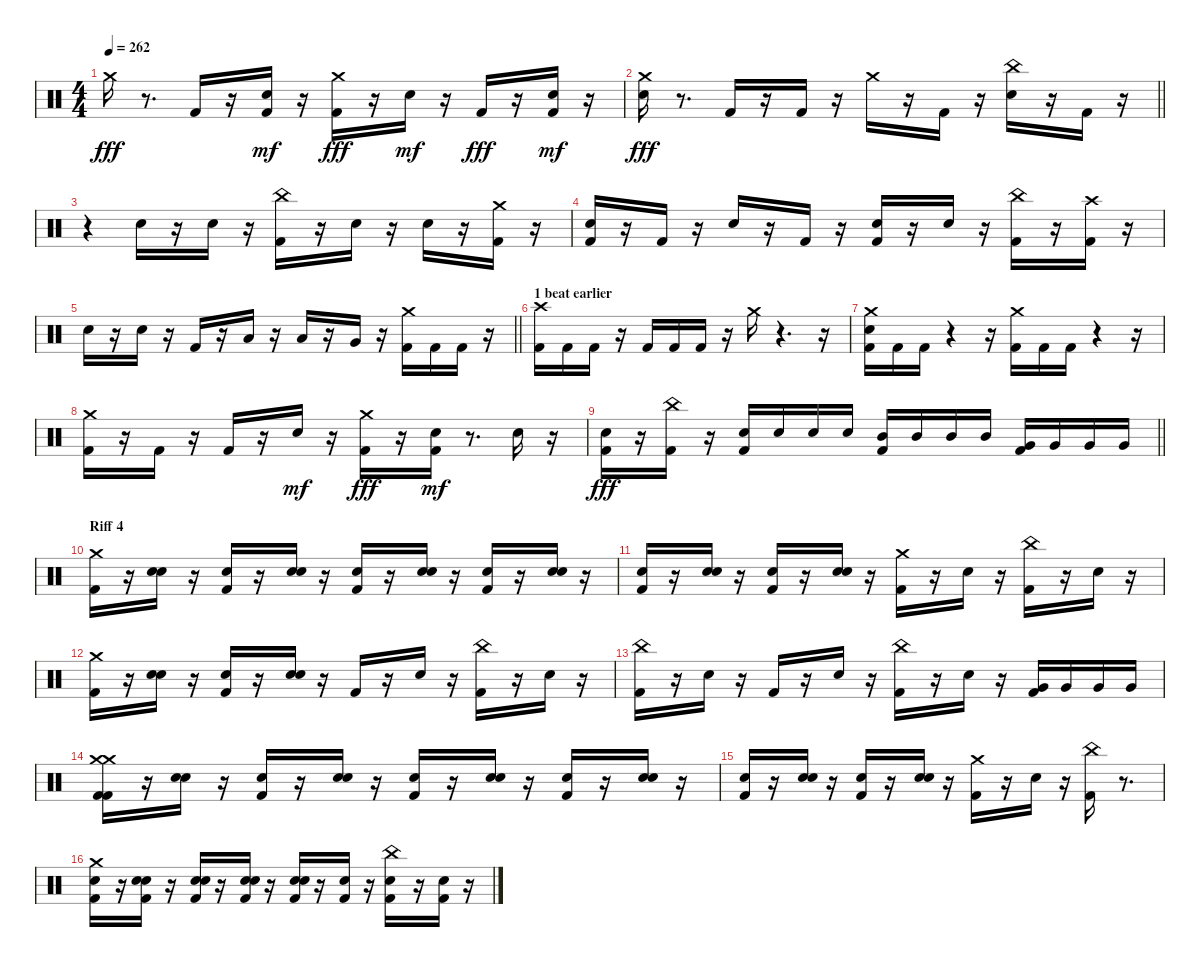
\track "" {instrument percussion}
\staff {score}
\articulation defaults
\ts (4 4)
\tempo 262
\clef neutral
\ks c "Crash medium (hit)".16{dy fff}
r.8{d} "Kick (hit) 2".16 r.16 ("Kick (hit) 2" "Snare (hit) 2").16{dy mf} r.16 ("Kick (hit) 2" "Crash medium (hit)").16{dy fff} r.16 "Snare (hit) 2".16{dy mf} r.16 "Kick (hit) 2".16{dy fff} r.16 ("Kick (hit) 2" "Snare (hit) 2").16{dy mf} r.16 |
\barLineRight lightlight
("Snare (hit) 2" "Crash medium (hit)").16{dy fff} r.8{d} "Kick (hit) 2".16 r.16 "Kick (hit) 2".16 r.16 "Crash medium (hit)".16 r.16 "Kick (hit) 2".16 r.16 ("Snare (hit) 2" "China (hit)").16 r.16 "Kick (hit) 2".16 r.16 |
\section ("" "")
r.4 "Snare (hit) 2".16 r.16 "Snare (hit) 2".16 r.16 ("Kick (hit) 2" "China (hit)").16 r.16 "Snare (hit) 2".16 r.16 "Snare (hit) 2".16 r.16 ("Kick (hit) 2" "Crash medium (hit)").16 r.16 |
("Snare (hit)" "Kick (hit) 2").16 r.16 "Kick (hit) 2".16 r.16 "Snare (hit) 2".16 r.16 "Kick (hit) 2".16 r.16 ("Snare (hit)" "Kick (hit) 2").16 r.16 "Snare (hit) 2".16 r.16 ("Kick (hit) 2" "China (hit)").16 r.16 ("Kick (hit) 2" "Crash high (hit)").16 r.16 |
\barLineRight lightlight "Snare (hit) 2".16
r.16 "Snare (hit) 2".16 r.16 "Kick (hit) 2".16 r.16 "Low Tom (hit)".16 r.16 "Low Tom (hit)".16 r.16 "Very Low Tom (hit)".16 r.16 ("Kick (hit) 2" "Crash medium (hit)").16 "Kick (hit) 2".16 "Kick (hit) 2".16 r.16 |
\section ("" "1 beat earlier")
("Kick (hit) 2" "Crash high (hit)").16 "Kick (hit) 2".16 "Kick (hit) 2".16 r.16 "Kick (hit) 2".16 "Kick (hit) 2".16 "Kick (hit) 2".16 r.16 "Crash medium (hit)".16 r.4{d} r.16 |
("Kick (hit) 2" "Snare (hit) 2" "Crash medium (hit)").16 "Kick (hit) 2".16 "Kick (hit) 2".16 r.4 r.16 ("Kick (hit) 2" "Crash medium (hit)").16 "Kick (hit) 2".16 "Kick (hit) 2".16 r.4 r.16 |
("Kick (hit) 2" "Crash medium (hit)").16 r.16 "Kick (hit) 2".16 r.16 "Kick (hit) 2".16 r.16 "Snare (hit) 2".16{dy mf} r.16 ("Kick (hit) 2" "Crash medium (hit)").16{dy fff} r.16 ("Kick (hit) 2" "Snare (hit) 2").16{dy mf} r.8{d} "Snare (hit) 2".16 r.16 |
\barLineRight lightlight
("Snare (hit)" "Kick (hit) 2").16{dy fff} r.16 ("Kick (hit) 2" "China (hit)").16 r.16 ("Kick (hit) 2" "Snare (hit) 2").16 "Snare (hit) 2".16 "Snare (hit) 2".16 "Snare (hit) 2".16 ("Kick (hit) 2" "Mid Tom (hit)").16 "Mid Tom (hit)".16 "Mid Tom (hit)".16 "Mid Tom (hit)".16 ("Kick (hit) 2" "Very Low Tom (hit)").16 "Very Low Tom (hit)".16 "Very Low Tom (hit)".16 "Very Low Tom (hit)".16 |
\section ("" "Riff 4")
("Kick (hit) 2" "Crash medium (hit)").16 r.16 ("Snare (hit)" "Snare (hit) 2").16 r.16 ("Snare (hit)" "Kick (hit) 2").16 r.16 ("Snare (hit)" "Snare (hit) 2").16 r.16 ("Snare (hit)" "Kick (hit) 2").16 r.16 ("Snare (hit)" "Snare (hit) 2").16 r.16 ("Snare (hit)" "Kick (hit) 2").16 r.16 ("Snare (hit)" "Snare (hit) 2").16 r.16 |
("Snare (hit)" "Kick (hit) 2").16 r.16 ("Snare (hit)" "Snare (hit) 2").16 r.16 ("Snare (hit)" "Kick (hit) 2").16 r.16 ("Snare (hit)" "Snare (hit) 2").16 r.16 ("Kick (hit) 2" "Crash medium (hit)").16 r.16 "Snare (hit) 2".16 r.16 ("Kick (hit) 2" "China (hit)").16 r.16 "Snare (hit) 2".16 r.16 |
("Crash medium (hit)" "Kick (hit) 2").16 r.16 ("Snare (hit)" "Snare (hit) 2").16 r.16 ("Snare (hit)" "Kick (hit) 2").16 r.16 ("Snare (hit)" "Snare (hit) 2").16 r.16 "Kick (hit) 2".16 r.16 "Snare (hit) 2".16 r.16 ("Kick (hit) 2" "China (hit)").16 r.16 "Snare (hit) 2".16 r.16 |
("China (hit)" "Kick (hit) 2").16 r.16 "Snare (hit) 2".16 r.16 "Kick (hit) 2".16 r.16 "Snare (hit) 2".16 r.16 ("China (hit)" "Kick (hit) 2").16 r.16 "Snare (hit) 2".16 r.16 ("Very Low Tom (hit)" "Kick (hit) 2").16 "Very Low Tom (hit)".16 "Very Low Tom (hit)".16 "Very Low Tom (hit)".16 |
("Kick (hit) 2" "Crash medium (hit)" "Kick (hit) 2" "Crash medium (hit)").16 r.16 ("Snare (hit)" "Snare (hit) 2").16 r.16 ("Snare (hit)" "Kick (hit) 2").16 r.16 ("Snare (hit)" "Snare (hit) 2").16 r.16 ("Snare (hit)" "Kick (hit) 2").16 r.16 ("Snare (hit)" "Snare (hit) 2").16 r.16 ("Snare (hit)" "Kick (hit) 2").16 r.16 ("Snare (hit)" "Snare (hit) 2").16 r.16 |
("Snare (hit)" "Kick (hit) 2").16 r.16 ("Snare (hit)" "Snare (hit) 2").16 r.16 ("Snare (hit)" "Kick (hit) 2").16 r.16 ("Snare (hit)" "Snare (hit) 2").16 r.16 ("Kick (hit) 2" "Crash medium (hit)").16 r.16 "Snare (hit) 2".16 r.16 ("Kick (hit) 2" "China (hit)").16 r.8{d} |
("Crash medium (hit)" "Kick (hit) 2" "Snare (hit) 2").16 r.16 ("Snare (hit)" "Snare (hit) 2" "Kick (hit) 2").16 r.16 ("Snare (hit)" "Kick (hit) 2" "Snare (hit) 2").16 r.16 ("Snare (hit)" "Snare (hit) 2" "Kick (hit) 2").16 r.16 ("Kick (hit) 2" "Snare (hit)" "Snare (hit) 2").16 r.16 ("Snare (hit) 2" "Kick (hit) 2").16 r.16 ("Kick (hit) 2" "China (hit)" "Snare (hit) 2").16 r.16 ("Snare (hit) 2" "Kick (hit) 2").16 r.16
